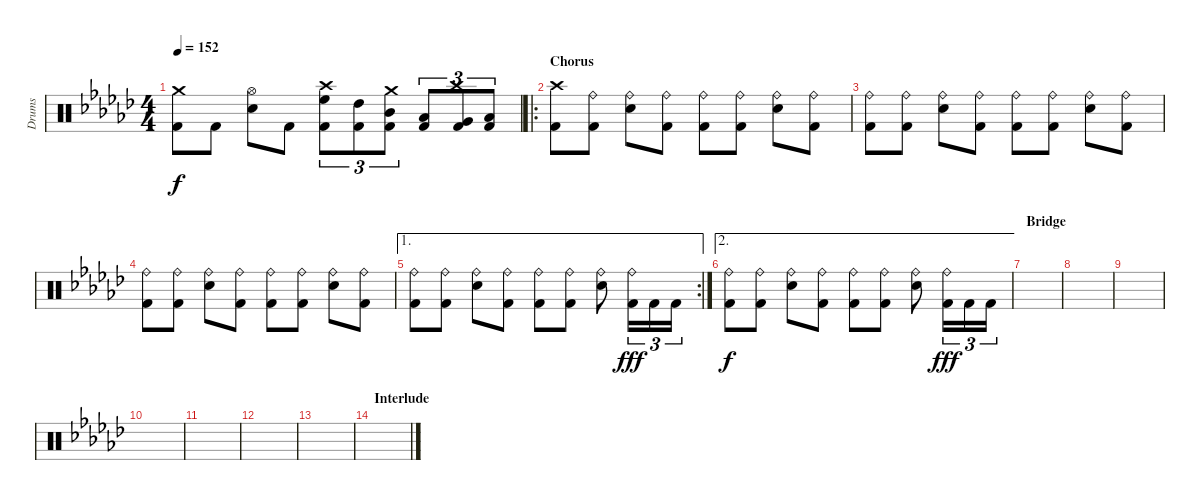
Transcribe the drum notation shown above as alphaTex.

\track ("Drums" "Drums") {instrument percussion}
\staff {score}
\articulation defaults
\ts (4 4)
\tempo 152
\clef neutral
\ks gb
("Crash medium (hit)" "Kick (hit) 2").8{dy f} "Kick (hit) 2".8 ("Hi-Hat (open)" "Electric Snare (hit)").8 "Kick (hit) 2".8 ("Crash high (hit)" "High Floor Tom (hit)" "Kick (hit) 2").8{tu (3 2)} ("High Tom (hit)" "Kick (hit) 2").8{tu (3 2)} ("Crash medium (hit)" "Mid Tom (hit)" "Kick (hit) 2").8{tu (3 2)} ("Low Tom (hit)" "Kick (hit) 2").8{tu (3 2)} ("Crash high (hit)" "Very Low Tom (hit)" "Kick (hit) 2").8{tu (3 2)} ("Low Floor Tom (hit)" "Kick (hit) 2").8{tu (3 2)} |
\ro
\section ("" "Chorus")
("Crash high (hit)" "Kick (hit) 2").8 ("Ride (bell)" "Kick (hit) 2").8 ("Ride (bell)" "Electric Snare (hit)").8 ("Ride (bell)" "Kick (hit) 2").8 ("Ride (bell)" "Kick (hit) 2").8 ("Ride (bell)" "Kick (hit) 2").8 ("Ride (bell)" "Electric Snare (hit)").8 ("Ride (bell)" "Kick (hit) 2").8 |
("Ride (bell)" "Kick (hit) 2").8 ("Ride (bell)" "Kick (hit) 2").8 ("Ride (bell)" "Electric Snare (hit)").8 ("Ride (bell)" "Kick (hit) 2").8 ("Ride (bell)" "Kick (hit) 2").8 ("Ride (bell)" "Kick (hit) 2").8 ("Ride (bell)" "Electric Snare (hit)").8 ("Ride (bell)" "Kick (hit) 2").8 |
("Ride (bell)" "Kick (hit) 2").8 ("Ride (bell)" "Kick (hit) 2").8 ("Ride (bell)" "Electric Snare (hit)").8 ("Ride (bell)" "Kick (hit) 2").8 ("Ride (bell)" "Kick (hit) 2").8 ("Ride (bell)" "Kick (hit) 2").8 ("Ride (bell)" "Electric Snare (hit)").8 ("Ride (bell)" "Kick (hit) 2").8 |
\ae 1
\rc 2
("Ride (bell)" "Kick (hit) 2").8 ("Ride (bell)" "Kick (hit) 2").8 ("Ride (bell)" "Electric Snare (hit)").8 ("Ride (bell)" "Kick (hit) 2").8 ("Ride (bell)" "Kick (hit) 2").8 ("Ride (bell)" "Kick (hit) 2").8 ("Ride (bell)" "Electric Snare (hit)").8 ("Ride (bell)" "Kick (hit) 2").16{tu (3 2) dy fff} "Kick (hit) 2".16{tu (3 2)} "Kick (hit) 2".16{tu (3 2)} |
\ae 2
("Ride (bell)" "Kick (hit) 2").8{dy f} ("Ride (bell)" "Kick (hit) 2").8 ("Ride (bell)" "Electric Snare (hit)").8 ("Ride (bell)" "Kick (hit) 2").8 ("Ride (bell)" "Kick (hit) 2").8 ("Ride (bell)" "Kick (hit) 2").8 ("Ride (bell)" "Electric Snare (hit)").8 ("Ride (bell)" "Kick (hit) 2").16{tu (3 2) dy fff} "Kick (hit) 2".16{tu (3 2)} "Kick (hit) 2".16{tu (3 2)} |
\section ("" "Bridge")
|
|
|
|
|
|
|
\section ("" "Interlude")
